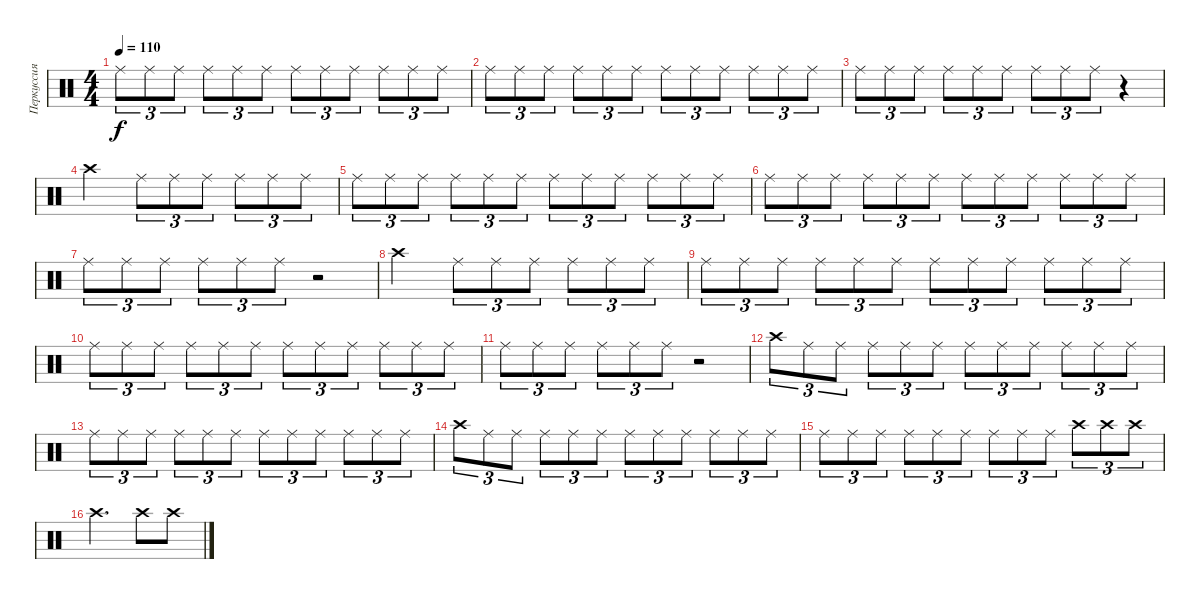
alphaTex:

\track ("Перкуссия" "Перкуссия") {instrument percussion}
\staff {score}
\articulation defaults
\ts (4 4)
\tempo 110
\clef neutral
\ks c "Ride (middle)".8{tu (3 2) dy f} "Ride (middle)".8{tu (3 2)} "Ride (middle)".8{tu (3 2)} "Ride (middle)".8{tu (3 2)} "Ride (middle)".8{tu (3 2)} "Ride (middle)".8{tu (3 2)} "Ride (middle)".8{tu (3 2)} "Ride (middle)".8{tu (3 2)} "Ride (middle)".8{tu (3 2)} "Ride (middle)".8{tu (3 2)} "Ride (middle)".8{tu (3 2)} "Ride (middle)".8{tu (3 2)}
|
"Ride (middle)".8{tu (3 2)} "Ride (middle)".8{tu (3 2)} "Ride (middle)".8{tu (3 2)} "Ride (middle)".8{tu (3 2)} "Ride (middle)".8{tu (3 2)} "Ride (middle)".8{tu (3 2)} "Ride (middle)".8{tu (3 2)} "Ride (middle)".8{tu (3 2)} "Ride (middle)".8{tu (3 2)} "Ride (middle)".8{tu (3 2)} "Ride (middle)".8{tu (3 2)} "Ride (middle)".8{tu (3 2)} |
"Ride (middle)".8{tu (3 2)} "Ride (middle)".8{tu (3 2)} "Ride (middle)".8{tu (3 2)} "Ride (middle)".8{tu (3 2)} "Ride (middle)".8{tu (3 2)} "Ride (middle)".8{tu (3 2)} "Ride (middle)".8{tu (3 2)} "Ride (middle)".8{tu (3 2)} "Ride (middle)".8{tu (3 2)} r.4 |
"Crash high (hit)".2 "Ride (middle)".8{tu (3 2)} "Ride (middle)".8{tu (3 2)} "Ride (middle)".8{tu (3 2)} "Ride (middle)".8{tu (3 2)} "Ride (middle)".8{tu (3 2)} "Ride (middle)".8{tu (3 2)} |
"Ride (middle)".8{tu (3 2)} "Ride (middle)".8{tu (3 2)} "Ride (middle)".8{tu (3 2)} "Ride (middle)".8{tu (3 2)} "Ride (middle)".8{tu (3 2)} "Ride (middle)".8{tu (3 2)} "Ride (middle)".8{tu (3 2)} "Ride (middle)".8{tu (3 2)} "Ride (middle)".8{tu (3 2)} "Ride (middle)".8{tu (3 2)} "Ride (middle)".8{tu (3 2)} "Ride (middle)".8{tu (3 2)} |
"Ride (middle)".8{tu (3 2)} "Ride (middle)".8{tu (3 2)} "Ride (middle)".8{tu (3 2)} "Ride (middle)".8{tu (3 2)} "Ride (middle)".8{tu (3 2)} "Ride (middle)".8{tu (3 2)} "Ride (middle)".8{tu (3 2)} "Ride (middle)".8{tu (3 2)} "Ride (middle)".8{tu (3 2)} "Ride (middle)".8{tu (3 2)} "Ride (middle)".8{tu (3 2)} "Ride (middle)".8{tu (3 2)} |
"Ride (middle)".8{tu (3 2)} "Ride (middle)".8{tu (3 2)} "Ride (middle)".8{tu (3 2)} "Ride (middle)".8{tu (3 2)} "Ride (middle)".8{tu (3 2)} "Ride (middle)".8{tu (3 2)} r.2 |
"Crash high (hit)".2 "Ride (middle)".8{tu (3 2)} "Ride (middle)".8{tu (3 2)} "Ride (middle)".8{tu (3 2)} "Ride (middle)".8{tu (3 2)} "Ride (middle)".8{tu (3 2)} "Ride (middle)".8{tu (3 2)} |
"Ride (middle)".8{tu (3 2)} "Ride (middle)".8{tu (3 2)} "Ride (middle)".8{tu (3 2)} "Ride (middle)".8{tu (3 2)} "Ride (middle)".8{tu (3 2)} "Ride (middle)".8{tu (3 2)} "Ride (middle)".8{tu (3 2)} "Ride (middle)".8{tu (3 2)} "Ride (middle)".8{tu (3 2)} "Ride (middle)".8{tu (3 2)} "Ride (middle)".8{tu (3 2)} "Ride (middle)".8{tu (3 2)} |
"Ride (middle)".8{tu (3 2)} "Ride (middle)".8{tu (3 2)} "Ride (middle)".8{tu (3 2)} "Ride (middle)".8{tu (3 2)} "Ride (middle)".8{tu (3 2)} "Ride (middle)".8{tu (3 2)} "Ride (middle)".8{tu (3 2)} "Ride (middle)".8{tu (3 2)} "Ride (middle)".8{tu (3 2)} "Ride (middle)".8{tu (3 2)} "Ride (middle)".8{tu (3 2)} "Ride (middle)".8{tu (3 2)} |
"Ride (middle)".8{tu (3 2)} "Ride (middle)".8{tu (3 2)} "Ride (middle)".8{tu (3 2)} "Ride (middle)".8{tu (3 2)} "Ride (middle)".8{tu (3 2)} "Ride (middle)".8{tu (3 2)} r.2 |
"Crash high (hit)".8{tu (3 2)} "Ride (middle)".8{tu (3 2)} "Ride (middle)".8{tu (3 2)} "Ride (middle)".8{tu (3 2)} "Ride (middle)".8{tu (3 2)} "Ride (middle)".8{tu (3 2)} "Ride (middle)".8{tu (3 2)} "Ride (middle)".8{tu (3 2)} "Ride (middle)".8{tu (3 2)} "Ride (middle)".8{tu (3 2)} "Ride (middle)".8{tu (3 2)} "Ride (middle)".8{tu (3 2)} |
"Ride (middle)".8{tu (3 2)} "Ride (middle)".8{tu (3 2)} "Ride (middle)".8{tu (3 2)} "Ride (middle)".8{tu (3 2)} "Ride (middle)".8{tu (3 2)} "Ride (middle)".8{tu (3 2)} "Ride (middle)".8{tu (3 2)} "Ride (middle)".8{tu (3 2)} "Ride (middle)".8{tu (3 2)} "Ride (middle)".8{tu (3 2)} "Ride (middle)".8{tu (3 2)} "Ride (middle)".8{tu (3 2)} |
"Crash high (hit)".8{tu (3 2)} "Ride (middle)".8{tu (3 2)} "Ride (middle)".8{tu (3 2)} "Ride (middle)".8{tu (3 2)} "Ride (middle)".8{tu (3 2)} "Ride (middle)".8{tu (3 2)} "Ride (middle)".8{tu (3 2)} "Ride (middle)".8{tu (3 2)} "Ride (middle)".8{tu (3 2)} "Ride (middle)".8{tu (3 2)} "Ride (middle)".8{tu (3 2)} "Ride (middle)".8{tu (3 2)} |
"Ride (middle)".8{tu (3 2)} "Ride (middle)".8{tu (3 2)} "Ride (middle)".8{tu (3 2)} "Ride (middle)".8{tu (3 2)} "Ride (middle)".8{tu (3 2)} "Ride (middle)".8{tu (3 2)} "Ride (middle)".8{tu (3 2)} "Ride (middle)".8{tu (3 2)} "Ride (middle)".8{tu (3 2)} "Crash high (hit)".8{tu (3 2)} "Crash high (hit)".8{tu (3 2)} "Crash high (hit)".8{tu (3 2)} |
"Crash high (hit)".2{d} "Crash high (hit)".8 "Crash high (hit)".8
